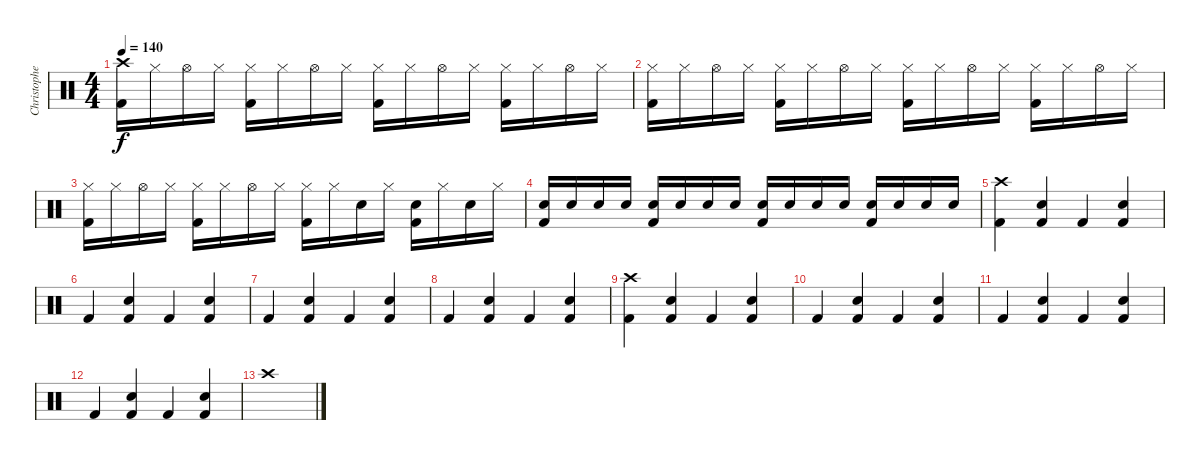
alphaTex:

\track ("Christopher Lawrence " "Christophe") {instrument percussion}
\staff {score}
\articulation defaults
\ts (4 4)
\tempo 140
\clef neutral
\ks c
("Crash high (hit)" "Kick (hit) 2").16{dy f} "Hi-Hat (closed)".16 "Hi-Hat (open)".16 "Hi-Hat (closed)".16 ("Hi-Hat (closed)" "Kick (hit) 2").16 "Hi-Hat (closed)".16 "Hi-Hat (open)".16 "Hi-Hat (closed)".16 ("Hi-Hat (closed)" "Kick (hit) 2").16 "Hi-Hat (closed)".16 "Hi-Hat (open)".16 "Hi-Hat (closed)".16 ("Hi-Hat (closed)" "Kick (hit) 2").16 "Hi-Hat (closed)".16 "Hi-Hat (open)".16 "Hi-Hat (closed)".16 |
("Hi-Hat (closed)" "Kick (hit) 2").16 "Hi-Hat (closed)".16 "Hi-Hat (open)".16 "Hi-Hat (closed)".16 ("Hi-Hat (closed)" "Kick (hit) 2").16 "Hi-Hat (closed)".16 "Hi-Hat (open)".16 "Hi-Hat (closed)".16 ("Hi-Hat (closed)" "Kick (hit) 2").16 "Hi-Hat (closed)".16 "Hi-Hat (open)".16 "Hi-Hat (closed)".16 ("Hi-Hat (closed)" "Kick (hit) 2").16 "Hi-Hat (closed)".16 "Hi-Hat (open)".16 "Hi-Hat (closed)".16 |
("Hi-Hat (closed)" "Kick (hit) 2").16 "Hi-Hat (closed)".16 "Hi-Hat (open)".16 "Hi-Hat (closed)".16 ("Hi-Hat (closed)" "Kick (hit) 2").16 "Hi-Hat (closed)".16 "Hi-Hat (open)".16 "Hi-Hat (closed)".16 ("Hi-Hat (closed)" "Kick (hit) 2").16 "Hi-Hat (closed)".16 "Snare (hit) 2".16 "Hi-Hat (closed)".16 ("Snare (hit) 2" "Kick (hit) 2").16 "Hi-Hat (closed)".16 "Snare (hit) 2".16 "Hi-Hat (closed)".16 |
("Snare (hit) 2" "Kick (hit) 2").16 "Snare (hit) 2".16 "Snare (hit) 2".16 "Snare (hit) 2".16 ("Snare (hit) 2" "Kick (hit) 2").16 "Snare (hit) 2".16 "Snare (hit) 2".16 "Snare (hit) 2".16 ("Snare (hit) 2" "Kick (hit) 2").16 "Snare (hit) 2".16 "Snare (hit) 2".16 "Snare (hit) 2".16 ("Snare (hit) 2" "Kick (hit) 2").16 "Snare (hit) 2".16 "Snare (hit) 2".16 "Snare (hit) 2".16 |
("Crash high (hit)" "Kick (hit) 2").4 ("Hand Clap (hit)" "Kick (hit) 2").4 "Kick (hit) 2".4 ("Hand Clap (hit)" "Kick (hit) 2").4 |
"Kick (hit) 2".4 ("Hand Clap (hit)" "Kick (hit) 2").4 "Kick (hit) 2".4 ("Hand Clap (hit)" "Kick (hit) 2").4 |
"Kick (hit) 2".4 ("Hand Clap (hit)" "Kick (hit) 2").4 "Kick (hit) 2".4 ("Hand Clap (hit)" "Kick (hit) 2").4 |
"Kick (hit) 2".4 ("Hand Clap (hit)" "Kick (hit) 2").4 "Kick (hit) 2".4 ("Hand Clap (hit)" "Kick (hit) 2").4 |
("Crash high (hit)" "Kick (hit) 2").4 ("Hand Clap (hit)" "Kick (hit) 2").4 "Kick (hit) 2".4 ("Hand Clap (hit)" "Kick (hit) 2").4 |
"Kick (hit) 2".4 ("Hand Clap (hit)" "Kick (hit) 2").4 "Kick (hit) 2".4 ("Hand Clap (hit)" "Kick (hit) 2").4 |
"Kick (hit) 2".4 ("Hand Clap (hit)" "Kick (hit) 2").4 "Kick (hit) 2".4 ("Hand Clap (hit)" "Kick (hit) 2").4 |
"Kick (hit) 2".4 ("Hand Clap (hit)" "Kick (hit) 2").4 "Kick (hit) 2".4 ("Hand Clap (hit)" "Kick (hit) 2").4 |
"Crash high (hit)".1
